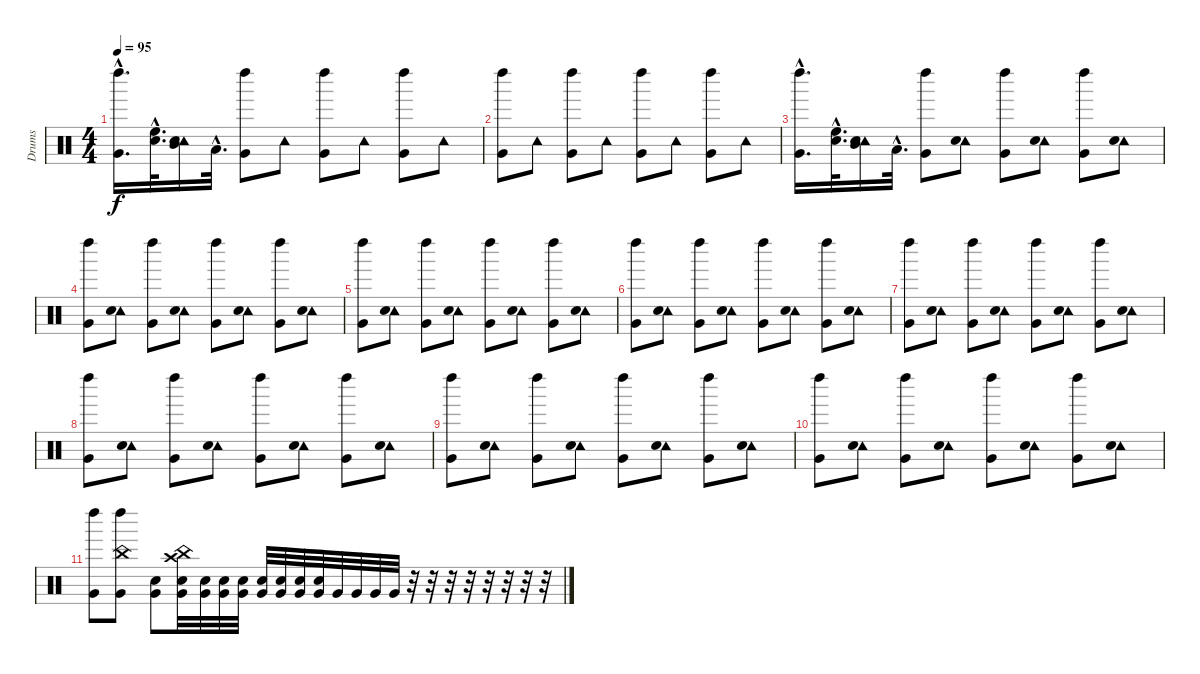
\track ("Drums" "Drums") {instrument percussion}
\staff {score}
\articulation defaults
\ts (4 4)
\tempo 95
\clef neutral
\ks c
("Very Low Tom (hit)"{hac} "Left Maraca (hit)"{hac}).16{d dy f} ("High Floor Tom (hit)"{hac} "Snare (hit) 2"{hac}).32{d} ("Mid Tom (hit)" "Tambourine (hit)" "Snare (hit) 2").16 "Low Tom (hit)"{hac}.32{d} ("Very Low Tom (hit)" "Left Maraca (hit)").8 "Tambourine (hit)".8 ("Very Low Tom (hit)" "Left Maraca (hit)").8 "Tambourine (hit)".8 ("Very Low Tom (hit)" "Left Maraca (hit)").8 "Tambourine (hit)".8 |
("Very Low Tom (hit)" "Left Maraca (hit)").8 "Tambourine (hit)".8 ("Very Low Tom (hit)" "Left Maraca (hit)").8 "Tambourine (hit)".8 ("Very Low Tom (hit)" "Left Maraca (hit)").8 "Tambourine (hit)".8 ("Very Low Tom (hit)" "Left Maraca (hit)").8 "Tambourine (hit)".8 |
("Very Low Tom (hit)"{hac} "Left Maraca (hit)"{hac}).16{d} ("High Floor Tom (hit)"{hac} "Snare (hit) 2"{hac}).32{d} ("Mid Tom (hit)" "Tambourine (hit)" "Snare (hit) 2").16 "Low Tom (hit)"{hac}.32{d} ("Very Low Tom (hit)" "Left Maraca (hit)").8 ("Tambourine (hit)" "Snare (hit) 2").8 ("Very Low Tom (hit)" "Left Maraca (hit)").8 ("Tambourine (hit)" "Snare (hit) 2").8 ("Very Low Tom (hit)" "Left Maraca (hit)").8 ("Tambourine (hit)" "Snare (hit) 2").8 |
("Very Low Tom (hit)" "Left Maraca (hit)").8 ("Tambourine (hit)" "Snare (hit) 2").8 ("Very Low Tom (hit)" "Left Maraca (hit)").8 ("Tambourine (hit)" "Snare (hit) 2").8 ("Very Low Tom (hit)" "Left Maraca (hit)").8 ("Tambourine (hit)" "Snare (hit) 2").8 ("Very Low Tom (hit)" "Left Maraca (hit)").8 ("Tambourine (hit)" "Snare (hit) 2").8 |
("Very Low Tom (hit)" "Left Maraca (hit)").8 ("Tambourine (hit)" "Snare (hit) 2").8 ("Very Low Tom (hit)" "Left Maraca (hit)").8 ("Tambourine (hit)" "Snare (hit) 2").8 ("Very Low Tom (hit)" "Left Maraca (hit)").8 ("Tambourine (hit)" "Snare (hit) 2").8 ("Very Low Tom (hit)" "Left Maraca (hit)").8 ("Tambourine (hit)" "Snare (hit) 2").8 |
("Very Low Tom (hit)" "Left Maraca (hit)").8 ("Tambourine (hit)" "Snare (hit) 2").8 ("Very Low Tom (hit)" "Left Maraca (hit)").8 ("Tambourine (hit)" "Snare (hit) 2").8 ("Very Low Tom (hit)" "Left Maraca (hit)").8 ("Tambourine (hit)" "Snare (hit) 2").8 ("Very Low Tom (hit)" "Left Maraca (hit)").8 ("Tambourine (hit)" "Snare (hit) 2").8 |
("Very Low Tom (hit)" "Left Maraca (hit)").8 ("Tambourine (hit)" "Snare (hit) 2").8 ("Very Low Tom (hit)" "Left Maraca (hit)").8 ("Tambourine (hit)" "Snare (hit) 2").8 ("Very Low Tom (hit)" "Left Maraca (hit)").8 ("Tambourine (hit)" "Snare (hit) 2").8 ("Very Low Tom (hit)" "Left Maraca (hit)").8 ("Tambourine (hit)" "Snare (hit) 2").8 |
("Very Low Tom (hit)" "Left Maraca (hit)").8 ("Tambourine (hit)" "Snare (hit) 2").8 ("Very Low Tom (hit)" "Left Maraca (hit)").8 ("Tambourine (hit)" "Snare (hit) 2").8 ("Very Low Tom (hit)" "Left Maraca (hit)").8 ("Tambourine (hit)" "Snare (hit) 2").8 ("Very Low Tom (hit)" "Left Maraca (hit)").8 ("Tambourine (hit)" "Snare (hit) 2").8 |
("Very Low Tom (hit)" "Left Maraca (hit)").8 ("Tambourine (hit)" "Snare (hit) 2").8 ("Very Low Tom (hit)" "Left Maraca (hit)").8 ("Tambourine (hit)" "Snare (hit) 2").8 ("Very Low Tom (hit)" "Left Maraca (hit)").8 ("Tambourine (hit)" "Snare (hit) 2").8 ("Very Low Tom (hit)" "Left Maraca (hit)").8 ("Tambourine (hit)" "Snare (hit) 2").8 |
("Very Low Tom (hit)" "Left Maraca (hit)").8 ("Tambourine (hit)" "Snare (hit) 2").8 ("Very Low Tom (hit)" "Left Maraca (hit)").8 ("Tambourine (hit)" "Snare (hit) 2").8 ("Very Low Tom (hit)" "Left Maraca (hit)").8 ("Tambourine (hit)" "Snare (hit) 2").8 ("Very Low Tom (hit)" "Left Maraca (hit)").8 ("Tambourine (hit)" "Snare (hit) 2").8 |
("Very Low Tom (hit)" "Left Maraca (hit)").8 ("Very Low Tom (hit)" "Left Maraca (hit)" "China (hit)").8 ("Very Low Tom (hit)" "Snare (hit) 2").8 ("Very Low Tom (hit)" "Snare (hit) 2" "China (hit)" "Crash high (hit)").32 ("Very Low Tom (hit)" "Snare (hit) 2").32 ("Very Low Tom (hit)" "Snare (hit) 2").32 ("Very Low Tom (hit)" "Snare (hit) 2").32 ("Very Low Tom (hit)" "Snare (hit) 2").32 ("Very Low Tom (hit)" "Snare (hit) 2").32 ("Very Low Tom (hit)" "Snare (hit) 2").32 ("Very Low Tom (hit)" "Snare (hit) 2").32 "Very Low Tom (hit)".32 "Very Low Tom (hit)".32 "Very Low Tom (hit)".32 "Very Low Tom (hit)".32 r.32 r.32 r.32 r.32 r.32 r.32 r.32 r.32
